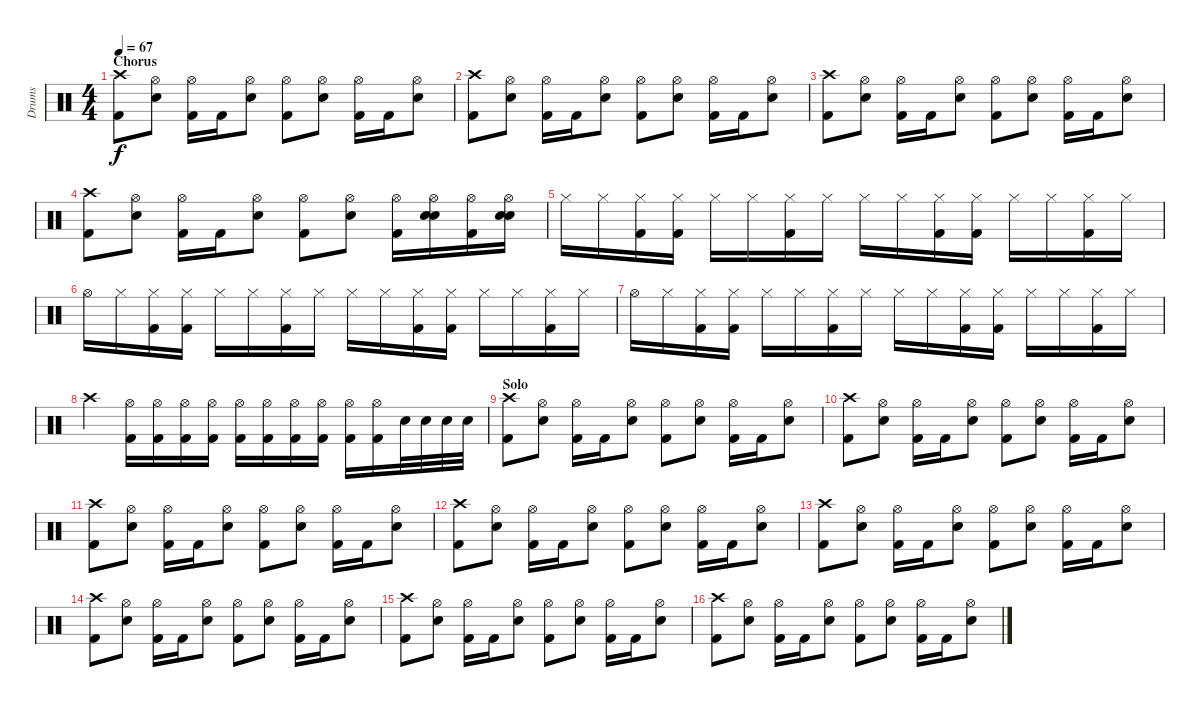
\track ("Drums" "Drums") {instrument percussion}
\staff {score}
\articulation defaults
\ts (4 4)
\section ("" "Chorus")
\tempo 67
\clef neutral
\ks c
("Crash high (hit)" "Kick (hit) 2").8{dy f} ("Hi-Hat (open)" "Electric Snare (hit)").8 ("Hi-Hat (open)" "Kick (hit) 2").16 "Kick (hit) 2".16 ("Hi-Hat (open)" "Electric Snare (hit)").8 ("Hi-Hat (open)" "Kick (hit) 2").8 ("Hi-Hat (open)" "Electric Snare (hit)").8 ("Hi-Hat (open)" "Kick (hit) 2").16 "Kick (hit) 2".16 ("Hi-Hat (open)" "Electric Snare (hit)").8 |
("Crash high (hit)" "Kick (hit) 2").8 ("Hi-Hat (open)" "Electric Snare (hit)").8 ("Hi-Hat (open)" "Kick (hit) 2").16 "Kick (hit) 2".16 ("Hi-Hat (open)" "Electric Snare (hit)").8 ("Hi-Hat (open)" "Kick (hit) 2").8 ("Hi-Hat (open)" "Electric Snare (hit)").8 ("Hi-Hat (open)" "Kick (hit) 2").16 "Kick (hit) 2".16 ("Hi-Hat (open)" "Electric Snare (hit)").8 |
("Crash high (hit)" "Kick (hit) 2").8 ("Hi-Hat (open)" "Electric Snare (hit)").8 ("Hi-Hat (open)" "Kick (hit) 2").16 "Kick (hit) 2".16 ("Hi-Hat (open)" "Electric Snare (hit)").8 ("Hi-Hat (open)" "Kick (hit) 2").8 ("Hi-Hat (open)" "Electric Snare (hit)").8 ("Hi-Hat (open)" "Kick (hit) 2").16 "Kick (hit) 2".16 ("Hi-Hat (open)" "Electric Snare (hit)").8 |
("Crash high (hit)" "Kick (hit) 2").8 ("Hi-Hat (open)" "Electric Snare (hit)").8 ("Hi-Hat (open)" "Kick (hit) 2").16 "Kick (hit) 2".16 ("Hi-Hat (open)" "Electric Snare (hit)").8 ("Hi-Hat (open)" "Kick (hit) 2").8 ("Hi-Hat (open)" "Electric Snare (hit)").8 ("Hi-Hat (open)" "Kick (hit) 2").16 ("Hi-Hat (open)" "Electric Snare (hit)" "Electric Snare (hit)").16 ("Hi-Hat (open)" "Kick (hit) 2").16 ("Hi-Hat (open)" "Electric Snare (hit)" "Electric Snare (hit)").16 |
"Hi-Hat (closed)".16 "Hi-Hat (closed)".16 ("Hi-Hat (closed)" "Kick (hit) 2").16 ("Hi-Hat (closed)" "Kick (hit) 2").16 "Hi-Hat (closed)".16 "Hi-Hat (closed)".16 ("Hi-Hat (closed)" "Kick (hit) 2").16 "Hi-Hat (closed)".16 "Hi-Hat (closed)".16 "Hi-Hat (closed)".16 ("Hi-Hat (closed)" "Kick (hit) 2").16 ("Hi-Hat (closed)" "Kick (hit) 2").16 "Hi-Hat (closed)".16 "Hi-Hat (closed)".16 ("Hi-Hat (closed)" "Kick (hit) 2").16 "Hi-Hat (closed)".16 |
"Hi-Hat (open)".16 "Hi-Hat (closed)".16 ("Hi-Hat (closed)" "Kick (hit) 2").16 ("Hi-Hat (closed)" "Kick (hit) 2").16 "Hi-Hat (closed)".16 "Hi-Hat (closed)".16 ("Hi-Hat (closed)" "Kick (hit) 2").16 "Hi-Hat (closed)".16 "Hi-Hat (closed)".16 "Hi-Hat (closed)".16 ("Hi-Hat (closed)" "Kick (hit) 2").16 ("Hi-Hat (closed)" "Kick (hit) 2").16 "Hi-Hat (closed)".16 "Hi-Hat (closed)".16 ("Hi-Hat (closed)" "Kick (hit) 2").16 "Hi-Hat (closed)".16 |
"Hi-Hat (open)".16 "Hi-Hat (closed)".16 ("Hi-Hat (closed)" "Kick (hit) 2").16 ("Hi-Hat (closed)" "Kick (hit) 2").16 "Hi-Hat (closed)".16 "Hi-Hat (closed)".16 ("Hi-Hat (closed)" "Kick (hit) 2").16 "Hi-Hat (closed)".16 "Hi-Hat (closed)".16 "Hi-Hat (closed)".16 ("Hi-Hat (closed)" "Kick (hit) 2").16 ("Hi-Hat (closed)" "Kick (hit) 2").16 "Hi-Hat (closed)".16 "Hi-Hat (closed)".16 ("Hi-Hat (closed)" "Kick (hit) 2").16 "Hi-Hat (closed)".16 |
"Crash high (hit)".4 ("Kick (hit) 2" "Hi-Hat (open)").16{volume 2} ("Kick (hit) 2" "Hi-Hat (open)").16{volume 4} ("Kick (hit) 2" "Hi-Hat (open)").16{volume 5} ("Kick (hit) 2" "Hi-Hat (open)").16{volume 6} ("Kick (hit) 2" "Hi-Hat (open)").16{volume 7} ("Kick (hit) 2" "Hi-Hat (open)").16{volume 8} ("Kick (hit) 2" "Hi-Hat (open)").16{volume 9} ("Kick (hit) 2" "Hi-Hat (open)").16{volume 10} ("Kick (hit) 2" "Hi-Hat (open)").16{volume 12} ("Kick (hit) 2" "Hi-Hat (open)").16 "Snare (hit) 2".32 "Snare (hit) 2".32 "Snare (hit) 2".32 "Snare (hit) 2".32 |
\section ("" "Solo")
("Crash high (hit)" "Kick (hit) 2").8{volume 12} ("Hi-Hat (open)" "Electric Snare (hit)").8 ("Hi-Hat (open)" "Kick (hit) 2").16 "Kick (hit) 2".16 ("Hi-Hat (open)" "Electric Snare (hit)").8 ("Hi-Hat (open)" "Kick (hit) 2").8 ("Hi-Hat (open)" "Electric Snare (hit)").8 ("Hi-Hat (open)" "Kick (hit) 2").16 "Kick (hit) 2".16 ("Hi-Hat (open)" "Electric Snare (hit)").8 |
("Crash high (hit)" "Kick (hit) 2").8 ("Hi-Hat (open)" "Electric Snare (hit)").8 ("Hi-Hat (open)" "Kick (hit) 2").16 "Kick (hit) 2".16 ("Hi-Hat (open)" "Electric Snare (hit)").8 ("Hi-Hat (open)" "Kick (hit) 2").8 ("Hi-Hat (open)" "Electric Snare (hit)").8 ("Hi-Hat (open)" "Kick (hit) 2").16 "Kick (hit) 2".16 ("Hi-Hat (open)" "Electric Snare (hit)").8 |
("Crash high (hit)" "Kick (hit) 2").8 ("Hi-Hat (open)" "Electric Snare (hit)").8 ("Hi-Hat (open)" "Kick (hit) 2").16 "Kick (hit) 2".16 ("Hi-Hat (open)" "Electric Snare (hit)").8 ("Hi-Hat (open)" "Kick (hit) 2").8 ("Hi-Hat (open)" "Electric Snare (hit)").8 ("Hi-Hat (open)" "Kick (hit) 2").16 "Kick (hit) 2".16 ("Hi-Hat (open)" "Electric Snare (hit)").8 |
("Crash high (hit)" "Kick (hit) 2").8 ("Hi-Hat (open)" "Electric Snare (hit)").8 ("Hi-Hat (open)" "Kick (hit) 2").16 "Kick (hit) 2".16 ("Hi-Hat (open)" "Electric Snare (hit)").8 ("Hi-Hat (open)" "Kick (hit) 2").8 ("Hi-Hat (open)" "Electric Snare (hit)").8 ("Hi-Hat (open)" "Kick (hit) 2").16 "Kick (hit) 2".16 ("Hi-Hat (open)" "Electric Snare (hit)").8 |
("Crash high (hit)" "Kick (hit) 2").8 ("Hi-Hat (open)" "Electric Snare (hit)").8 ("Hi-Hat (open)" "Kick (hit) 2").16 "Kick (hit) 2".16 ("Hi-Hat (open)" "Electric Snare (hit)").8 ("Hi-Hat (open)" "Kick (hit) 2").8 ("Hi-Hat (open)" "Electric Snare (hit)").8 ("Hi-Hat (open)" "Kick (hit) 2").16 "Kick (hit) 2".16 ("Hi-Hat (open)" "Electric Snare (hit)").8 |
("Crash high (hit)" "Kick (hit) 2").8 ("Hi-Hat (open)" "Electric Snare (hit)").8 ("Hi-Hat (open)" "Kick (hit) 2").16 "Kick (hit) 2".16 ("Hi-Hat (open)" "Electric Snare (hit)").8 ("Hi-Hat (open)" "Kick (hit) 2").8 ("Hi-Hat (open)" "Electric Snare (hit)").8 ("Hi-Hat (open)" "Kick (hit) 2").16 "Kick (hit) 2".16 ("Hi-Hat (open)" "Electric Snare (hit)").8 |
("Crash high (hit)" "Kick (hit) 2").8 ("Hi-Hat (open)" "Electric Snare (hit)").8 ("Hi-Hat (open)" "Kick (hit) 2").16 "Kick (hit) 2".16 ("Hi-Hat (open)" "Electric Snare (hit)").8 ("Hi-Hat (open)" "Kick (hit) 2").8 ("Hi-Hat (open)" "Electric Snare (hit)").8 ("Hi-Hat (open)" "Kick (hit) 2").16 "Kick (hit) 2".16 ("Hi-Hat (open)" "Electric Snare (hit)").8 |
("Crash high (hit)" "Kick (hit) 2").8 ("Hi-Hat (open)" "Electric Snare (hit)").8 ("Hi-Hat (open)" "Kick (hit) 2").16 "Kick (hit) 2".16 ("Hi-Hat (open)" "Electric Snare (hit)").8 ("Hi-Hat (open)" "Kick (hit) 2").8 ("Hi-Hat (open)" "Electric Snare (hit)").8 ("Hi-Hat (open)" "Kick (hit) 2").16 "Kick (hit) 2".16 ("Hi-Hat (open)" "Electric Snare (hit)").8
